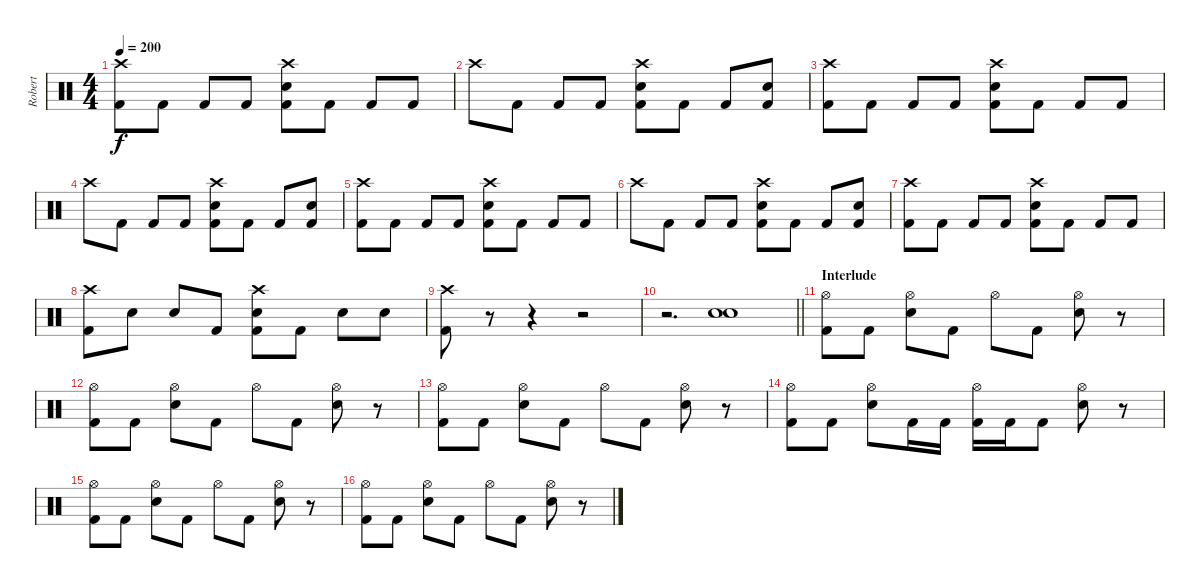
\track ("Robert" "Robert") {instrument percussion}
\staff {score}
\articulation defaults
\ts (4 4)
\tempo 200
\clef neutral
\ks c
("Crash high (hit)" "Kick (hit) 2").8{dy f} "Kick (hit) 2".8 "Kick (hit) 2".8 "Kick (hit) 2".8 ("Crash high (hit)" "Electric Snare (hit)" "Kick (hit) 2").8 "Kick (hit) 2".8 "Kick (hit) 2".8 "Kick (hit) 2".8 |
"Crash high (hit)".8 "Kick (hit) 2".8 "Kick (hit) 2".8 "Kick (hit) 2".8 ("Crash high (hit)" "Electric Snare (hit)" "Kick (hit) 2").8 "Kick (hit) 2".8 "Kick (hit) 2".8 ("Electric Snare (hit)" "Kick (hit) 2").8 |
("Crash high (hit)" "Kick (hit) 2").8 "Kick (hit) 2".8 "Kick (hit) 2".8 "Kick (hit) 2".8 ("Crash high (hit)" "Electric Snare (hit)" "Kick (hit) 2").8 "Kick (hit) 2".8 "Kick (hit) 2".8 "Kick (hit) 2".8 |
"Crash high (hit)".8 "Kick (hit) 2".8 "Kick (hit) 2".8 "Kick (hit) 2".8 ("Crash high (hit)" "Electric Snare (hit)" "Kick (hit) 2").8 "Kick (hit) 2".8 "Kick (hit) 2".8 ("Electric Snare (hit)" "Kick (hit) 2").8 |
("Crash high (hit)" "Kick (hit) 2").8 "Kick (hit) 2".8 "Kick (hit) 2".8 "Kick (hit) 2".8 ("Crash high (hit)" "Electric Snare (hit)" "Kick (hit) 2").8 "Kick (hit) 2".8 "Kick (hit) 2".8 "Kick (hit) 2".8 |
"Crash high (hit)".8 "Kick (hit) 2".8 "Kick (hit) 2".8 "Kick (hit) 2".8 ("Crash high (hit)" "Electric Snare (hit)" "Kick (hit) 2").8 "Kick (hit) 2".8 "Kick (hit) 2".8 ("Electric Snare (hit)" "Kick (hit) 2").8 |
("Crash high (hit)" "Kick (hit) 2").8 "Kick (hit) 2".8 "Kick (hit) 2".8 "Kick (hit) 2".8 ("Crash high (hit)" "Electric Snare (hit)" "Kick (hit) 2").8 "Kick (hit) 2".8 "Kick (hit) 2".8 "Kick (hit) 2".8 |
("Crash high (hit)" "Kick (hit) 2").8 "Electric Snare (hit)".8 "Electric Snare (hit)".8 "Kick (hit) 2".8 ("Crash high (hit)" "Electric Snare (hit)" "Kick (hit) 2").8 "Kick (hit) 2".8 "Electric Snare (hit)".8 "Electric Snare (hit)".8 |
("Crash high (hit)" "Kick (hit) 2").8 r.8 r.4 r.2 |
\barLineRight lightlight
r.2{d} ("Electric Snare (hit)" "Electric Snare (hit)").1 |
\section ("" "Interlude")
("Hi-Hat (open)" "Kick (hit) 2").8 "Kick (hit) 2".8 ("Hi-Hat (open)" "Electric Snare (hit)").8 "Kick (hit) 2".8 "Hi-Hat (open)".8 "Kick (hit) 2".8 ("Hi-Hat (open)" "Electric Snare (hit)").8 r.8 |
("Hi-Hat (open)" "Kick (hit) 2").8 "Kick (hit) 2".8 ("Hi-Hat (open)" "Electric Snare (hit)").8 "Kick (hit) 2".8 "Hi-Hat (open)".8 "Kick (hit) 2".8 ("Hi-Hat (open)" "Electric Snare (hit)").8 r.8 |
("Hi-Hat (open)" "Kick (hit) 2").8 "Kick (hit) 2".8 ("Hi-Hat (open)" "Electric Snare (hit)").8 "Kick (hit) 2".8 "Hi-Hat (open)".8 "Kick (hit) 2".8 ("Hi-Hat (open)" "Electric Snare (hit)").8 r.8 |
("Hi-Hat (open)" "Kick (hit) 2").8 "Kick (hit) 2".8 ("Hi-Hat (open)" "Electric Snare (hit)").8 "Kick (hit) 2".16 "Kick (hit) 2".16 ("Hi-Hat (open)" "Kick (hit) 2").16 "Kick (hit) 2".16 "Kick (hit) 2".8 ("Hi-Hat (open)" "Electric Snare (hit)").8 r.8 |
("Hi-Hat (open)" "Kick (hit) 2").8 "Kick (hit) 2".8 ("Hi-Hat (open)" "Electric Snare (hit)").8 "Kick (hit) 2".8 "Hi-Hat (open)".8 "Kick (hit) 2".8 ("Hi-Hat (open)" "Electric Snare (hit)").8 r.8 |
("Hi-Hat (open)" "Kick (hit) 2").8 "Kick (hit) 2".8 ("Hi-Hat (open)" "Electric Snare (hit)").8 "Kick (hit) 2".8 "Hi-Hat (open)".8 "Kick (hit) 2".8 ("Hi-Hat (open)" "Electric Snare (hit)").8 r.8
